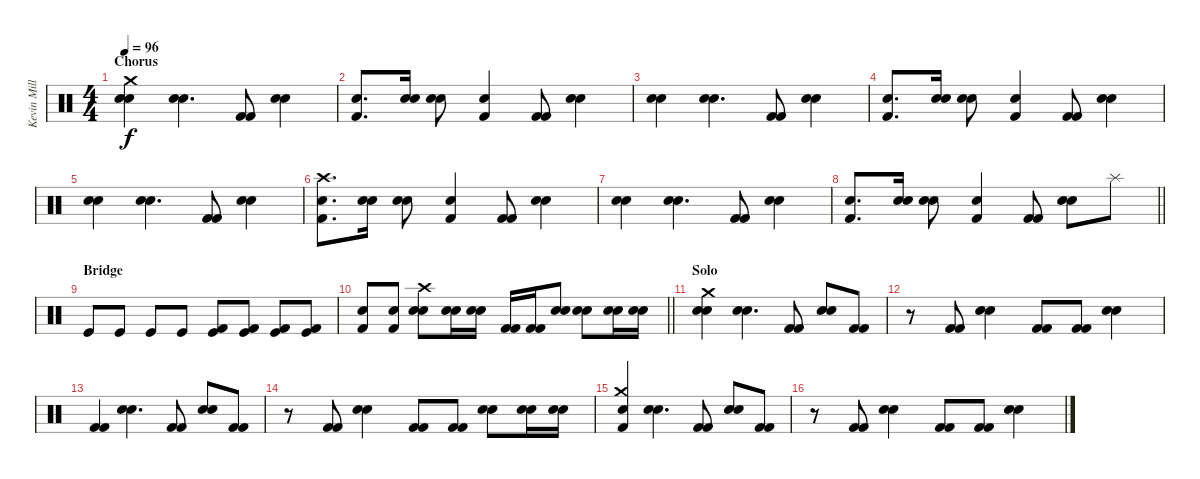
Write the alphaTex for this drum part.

\track ("Kevin Miller (Drums)" "Kevin Mill") {instrument percussion}
\staff {score}
\articulation defaults
\ts (4 4)
\section ("" "Chorus")
\tempo 96
\clef neutral
\ks c
("Electric Snare (hit)" "Electric Snare (hit)" "Crash medium (hit)").4{dy f} ("Electric Snare (hit)" "Electric Snare (hit)").4{d} ("Kick (hit) 2" "Kick (hit) 2").8 ("Electric Snare (hit)" "Electric Snare (hit)").4 |
("Electric Snare (hit)" "Kick (hit) 2").8{d} ("Electric Snare (hit)" "Electric Snare (hit)").16 ("Electric Snare (hit)" "Electric Snare (hit)").8 ("Electric Snare (hit)" "Kick (hit) 2").4 ("Kick (hit) 2" "Kick (hit) 2").8 ("Electric Snare (hit)" "Electric Snare (hit)").4 |
("Electric Snare (hit)" "Electric Snare (hit)").4 ("Electric Snare (hit)" "Electric Snare (hit)").4{d} ("Kick (hit) 2" "Kick (hit) 2").8 ("Electric Snare (hit)" "Electric Snare (hit)").4 |
("Electric Snare (hit)" "Kick (hit) 2").8{d} ("Electric Snare (hit)" "Electric Snare (hit)").16 ("Electric Snare (hit)" "Electric Snare (hit)").8 ("Electric Snare (hit)" "Kick (hit) 2").4 ("Kick (hit) 2" "Kick (hit) 2").8 ("Electric Snare (hit)" "Electric Snare (hit)").4 |
("Electric Snare (hit)" "Electric Snare (hit)").4 ("Electric Snare (hit)" "Electric Snare (hit)").4{d} ("Kick (hit) 2" "Kick (hit) 2").8 ("Electric Snare (hit)" "Electric Snare (hit)").4 |
("Electric Snare (hit)" "Kick (hit) 2" "Crash high (hit)").8{d} ("Electric Snare (hit)" "Electric Snare (hit)").16 ("Electric Snare (hit)" "Electric Snare (hit)").8 ("Electric Snare (hit)" "Kick (hit) 2").4 ("Kick (hit) 2" "Kick (hit) 2").8 ("Electric Snare (hit)" "Electric Snare (hit)").4 |
("Electric Snare (hit)" "Electric Snare (hit)").4 ("Electric Snare (hit)" "Electric Snare (hit)").4{d} ("Kick (hit) 2" "Kick (hit) 2").8 ("Electric Snare (hit)" "Electric Snare (hit)").4 |
\barLineRight lightlight
("Electric Snare (hit)" "Kick (hit) 2").8{d} ("Electric Snare (hit)" "Electric Snare (hit)").16 ("Electric Snare (hit)" "Electric Snare (hit)").8 ("Electric Snare (hit)" "Kick (hit) 2").4 ("Kick (hit) 2" "Kick (hit) 2").8 ("Electric Snare (hit)" "Electric Snare (hit)").8 "Splash (hit)".8 |
\section ("" "Bridge")
"Kick (hit)".8 "Kick (hit)".8 "Kick (hit)".8 "Kick (hit)".8 ("Kick (hit) 2" "Kick (hit)").8 ("Kick (hit) 2" "Kick (hit)").8 ("Kick (hit) 2" "Kick (hit)").8 ("Kick (hit) 2" "Kick (hit)").8 |
\barLineRight lightlight
("Electric Snare (hit)" "Kick (hit) 2").8 ("Electric Snare (hit)" "Kick (hit) 2").8 ("Electric Snare (hit)" "Electric Snare (hit)" "Crash high (hit)").8 ("Electric Snare (hit)" "Electric Snare (hit)").16 ("Electric Snare (hit)" "Electric Snare (hit)").16 ("Kick (hit) 2" "Kick (hit) 2").16 ("Kick (hit) 2" "Kick (hit) 2").16 ("Electric Snare (hit)" "Electric Snare (hit)").8 ("Electric Snare (hit)" "Electric Snare (hit)").8 ("Electric Snare (hit)" "Electric Snare (hit)").16 ("Electric Snare (hit)" "Electric Snare (hit)").16 |
\section ("" "Solo")
("Electric Snare (hit)" "Electric Snare (hit)" "Crash medium (hit)").4 ("Electric Snare (hit)" "Electric Snare (hit)").4{d} ("Kick (hit) 2" "Kick (hit) 2").8 ("Electric Snare (hit)" "Electric Snare (hit)").8 ("Kick (hit) 2" "Kick (hit) 2").8 |
r.8 ("Kick (hit) 2" "Kick (hit) 2").8 ("Electric Snare (hit)" "Electric Snare (hit)").4 ("Kick (hit) 2" "Kick (hit) 2").8 ("Kick (hit) 2" "Kick (hit) 2").8 ("Electric Snare (hit)" "Electric Snare (hit)").4 |
("Kick (hit) 2" "Kick (hit) 2").4 ("Electric Snare (hit)" "Electric Snare (hit)").4{d} ("Kick (hit) 2" "Kick (hit) 2").8 ("Electric Snare (hit)" "Electric Snare (hit)").8 ("Kick (hit) 2" "Kick (hit) 2").8 |
r.8 ("Kick (hit) 2" "Kick (hit) 2").8 ("Electric Snare (hit)" "Electric Snare (hit)").4 ("Kick (hit) 2" "Kick (hit) 2").8 ("Kick (hit) 2" "Kick (hit) 2").8 ("Electric Snare (hit)" "Electric Snare (hit)").8 ("Electric Snare (hit)" "Electric Snare (hit)").16 ("Electric Snare (hit)" "Electric Snare (hit)").16 |
("Electric Snare (hit)" "Kick (hit) 2" "Crash medium (hit)").4 ("Electric Snare (hit)" "Electric Snare (hit)").4{d} ("Kick (hit) 2" "Kick (hit) 2").8 ("Electric Snare (hit)" "Electric Snare (hit)").8 ("Kick (hit) 2" "Kick (hit) 2").8 |
r.8 ("Kick (hit) 2" "Kick (hit) 2").8 ("Electric Snare (hit)" "Electric Snare (hit)").4 ("Kick (hit) 2" "Kick (hit) 2").8 ("Kick (hit) 2" "Kick (hit) 2").8 ("Electric Snare (hit)" "Electric Snare (hit)").4
